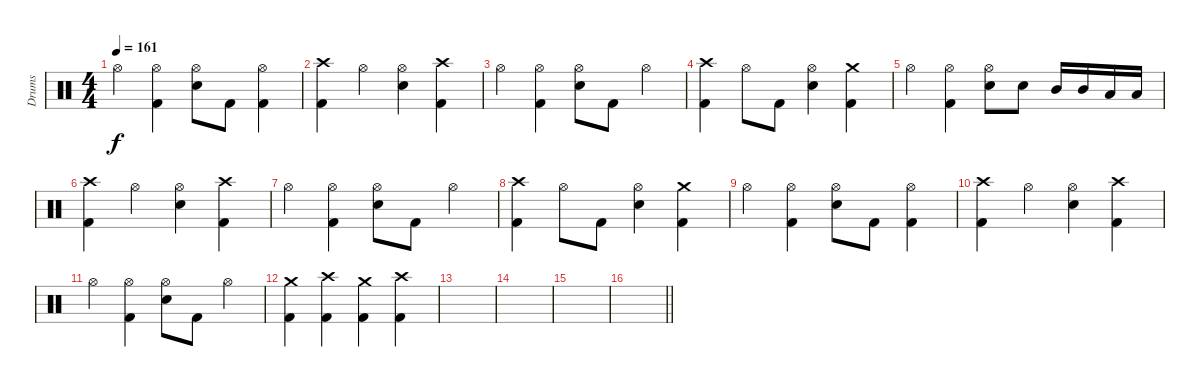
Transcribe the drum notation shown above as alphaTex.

\track ("Drums" "Drums") {instrument percussion}
\staff {score}
\articulation defaults
\ts (4 4)
\tempo 161
\clef neutral
\ks c "Hi-Hat (open)".4{dy f}
("Hi-Hat (open)" "Kick (hit) 2").4 ("Hi-Hat (open)" "Snare (hit) 2").8 "Kick (hit) 2".8 ("Hi-Hat (open)" "Kick (hit) 2").4 |
("Crash high (hit)" "Kick (hit) 2").4 "Hi-Hat (open)".4 ("Hi-Hat (open)" "Snare (hit) 2").4 ("Crash high (hit)" "Kick (hit) 2").4 |
"Hi-Hat (open)".4 ("Hi-Hat (open)" "Kick (hit) 2").4 ("Hi-Hat (open)" "Snare (hit) 2").8 "Kick (hit) 2".8 "Hi-Hat (open)".4 |
("Crash high (hit)" "Kick (hit) 2").4 "Hi-Hat (open)".8 "Kick (hit) 2".8 ("Hi-Hat (open)" "Snare (hit) 2").4 ("Crash medium (hit)" "Kick (hit) 2").4 |
"Hi-Hat (open)".4 ("Hi-Hat (open)" "Kick (hit) 2").4 ("Hi-Hat (open)" "Snare (hit) 2").8 "Snare (hit) 2".8 "Mid Tom (hit)".16 "Mid Tom (hit)".16 "Low Tom (hit)".16 "Low Tom (hit)".16 |
("Crash high (hit)" "Kick (hit) 2").4 "Hi-Hat (open)".4 ("Hi-Hat (open)" "Snare (hit) 2").4 ("Crash high (hit)" "Kick (hit) 2").4 |
"Hi-Hat (open)".4 ("Hi-Hat (open)" "Kick (hit) 2").4 ("Hi-Hat (open)" "Snare (hit) 2").8 "Kick (hit) 2".8 "Hi-Hat (open)".4 |
("Crash high (hit)" "Kick (hit) 2").4 "Hi-Hat (open)".8 "Kick (hit) 2".8 ("Hi-Hat (open)" "Snare (hit) 2").4 ("Crash medium (hit)" "Kick (hit) 2").4 |
"Hi-Hat (open)".4 ("Hi-Hat (open)" "Kick (hit) 2").4 ("Hi-Hat (open)" "Snare (hit) 2").8 "Kick (hit) 2".8 ("Hi-Hat (open)" "Kick (hit) 2").4 |
("Crash high (hit)" "Kick (hit) 2").4 "Hi-Hat (open)".4 ("Hi-Hat (open)" "Snare (hit) 2").4 ("Crash high (hit)" "Kick (hit) 2").4 |
"Hi-Hat (open)".4 ("Hi-Hat (open)" "Kick (hit) 2").4 ("Hi-Hat (open)" "Snare (hit) 2").8 "Kick (hit) 2".8 "Hi-Hat (open)".4 |
("Crash medium (hit)" "Kick (hit) 2").4 ("Crash high (hit)" "Kick (hit) 2").4 ("Crash medium (hit)" "Kick (hit) 2").4 ("Crash high (hit)" "Kick (hit) 2").4 |
|
|
|
\barLineRight lightlight
